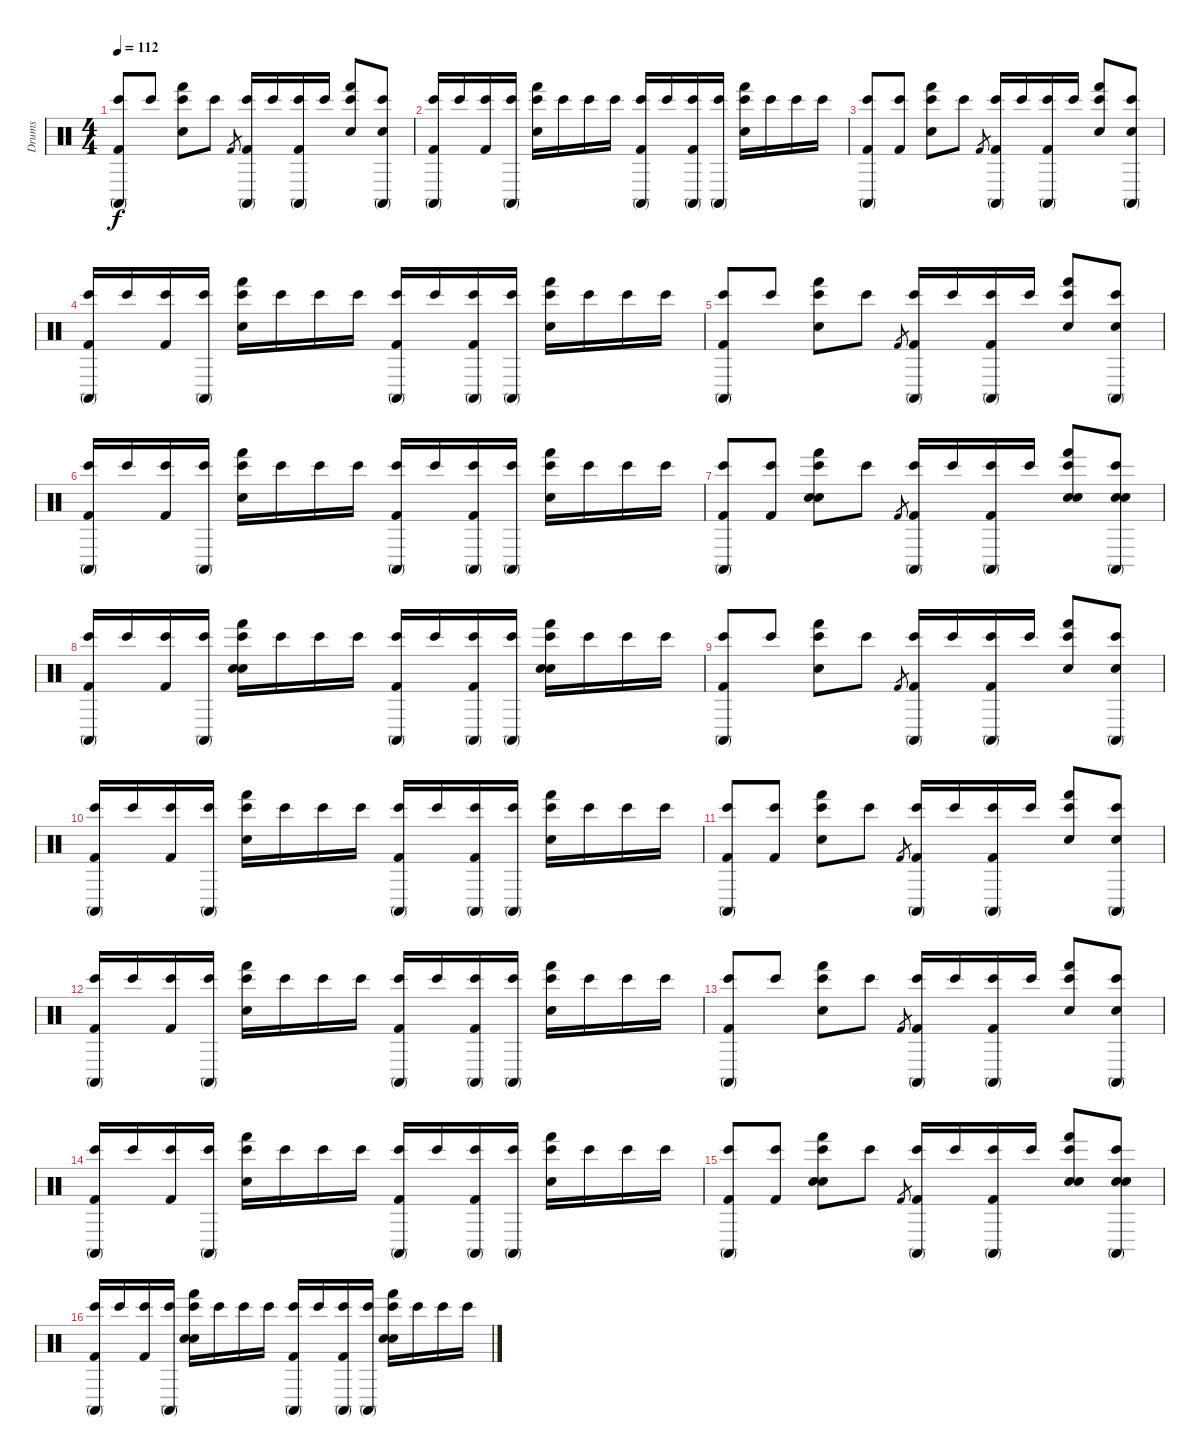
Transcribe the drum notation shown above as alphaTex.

\track ("Drums" "Drums") {instrument percussion}
\staff {score}
\articulation defaults
\ts (4 4)
\tempo 112
\clef neutral
\ks c
("Conga high (mute)" "Bongo High (hit)" "Kick (hit) 2").8{dy f} "Bongo High (hit)".8 ("Hand (hit)" "Bongo High (hit)" "Snare (hit) 2").8 "Bongo High (hit)".8 "Kick (hit) 2".8{gr} ("Conga high (mute)" "Bongo High (hit)" "Kick (hit) 2").16 "Bongo High (hit)".16 ("Conga high (mute)" "Bongo High (hit)" "Kick (hit) 2").16 "Bongo High (hit)".16 ("Hand (hit)" "Bongo High (hit)" "Snare (hit) 2").8 ("Conga high (mute)" "Bongo High (hit)" "Snare (hit) 2").8 |
("Conga high (mute)" "Bongo High (hit)" "Kick (hit) 2").16 "Bongo High (hit)".16 ("Bongo High (hit)" "Kick (hit) 2").16 ("Conga high (mute)" "Bongo High (hit)").16 ("Hand (hit)" "Bongo High (hit)" "Snare (hit) 2").16 "Bongo High (hit)".16 "Bongo High (hit)".16 "Bongo High (hit)".16 ("Conga high (mute)" "Bongo High (hit)" "Kick (hit) 2").16 "Bongo High (hit)".16 ("Conga high (mute)" "Bongo High (hit)" "Kick (hit) 2").16 ("Conga high (mute)" "Bongo High (hit)").16 ("Hand (hit)" "Bongo High (hit)" "Snare (hit) 2").16 "Bongo High (hit)".16 "Bongo High (hit)".16 "Bongo High (hit)".16 |
("Conga high (mute)" "Bongo High (hit)" "Kick (hit) 2").8 ("Bongo High (hit)" "Kick (hit) 2").8 ("Hand (hit)" "Bongo High (hit)" "Snare (hit) 2").8 "Bongo High (hit)".8 "Kick (hit) 2".8{gr} ("Conga high (mute)" "Bongo High (hit)" "Kick (hit) 2").16 "Bongo High (hit)".16 ("Conga high (mute)" "Bongo High (hit)" "Kick (hit) 2").16 "Bongo High (hit)".16 ("Hand (hit)" "Bongo High (hit)" "Snare (hit) 2").8 ("Conga high (mute)" "Bongo High (hit)" "Snare (hit) 2").8 |
("Conga high (mute)" "Bongo High (hit)" "Kick (hit) 2").16 "Bongo High (hit)".16 ("Bongo High (hit)" "Kick (hit) 2").16 ("Conga high (mute)" "Bongo High (hit)").16 ("Hand (hit)" "Bongo High (hit)" "Snare (hit) 2").16 "Bongo High (hit)".16 "Bongo High (hit)".16 "Bongo High (hit)".16 ("Conga high (mute)" "Bongo High (hit)" "Kick (hit) 2").16 "Bongo High (hit)".16 ("Conga high (mute)" "Bongo High (hit)" "Kick (hit) 2").16 ("Conga high (mute)" "Bongo High (hit)").16 ("Hand (hit)" "Bongo High (hit)" "Snare (hit) 2").16 "Bongo High (hit)".16 "Bongo High (hit)".16 "Bongo High (hit)".16 |
("Conga high (mute)" "Bongo High (hit)" "Kick (hit) 2").8 "Bongo High (hit)".8 ("Hand (hit)" "Bongo High (hit)" "Snare (hit) 2").8 "Bongo High (hit)".8 "Kick (hit) 2".8{gr} ("Conga high (mute)" "Bongo High (hit)" "Kick (hit) 2").16 "Bongo High (hit)".16 ("Conga high (mute)" "Bongo High (hit)" "Kick (hit) 2").16 "Bongo High (hit)".16 ("Hand (hit)" "Bongo High (hit)" "Snare (hit) 2").8 ("Conga high (mute)" "Bongo High (hit)" "Snare (hit) 2").8 |
("Conga high (mute)" "Bongo High (hit)" "Kick (hit) 2").16 "Bongo High (hit)".16 ("Bongo High (hit)" "Kick (hit) 2").16 ("Conga high (mute)" "Bongo High (hit)").16 ("Hand (hit)" "Bongo High (hit)" "Snare (hit) 2").16 "Bongo High (hit)".16 "Bongo High (hit)".16 "Bongo High (hit)".16 ("Conga high (mute)" "Bongo High (hit)" "Kick (hit) 2").16 "Bongo High (hit)".16 ("Conga high (mute)" "Bongo High (hit)" "Kick (hit) 2").16 ("Conga high (mute)" "Bongo High (hit)").16 ("Hand (hit)" "Bongo High (hit)" "Snare (hit) 2").16 "Bongo High (hit)".16 "Bongo High (hit)".16 "Bongo High (hit)".16 |
("Conga high (mute)" "Bongo High (hit)" "Kick (hit) 2").8 ("Bongo High (hit)" "Kick (hit) 2").8 ("Hand (hit)" "Bongo High (hit)" "Electric Snare (hit)" "Snare (hit) 2").8 "Bongo High (hit)".8 "Kick (hit) 2".8{gr} ("Conga high (mute)" "Bongo High (hit)" "Kick (hit) 2").16 "Bongo High (hit)".16 ("Conga high (mute)" "Bongo High (hit)" "Kick (hit) 2").16 "Bongo High (hit)".16 ("Hand (hit)" "Bongo High (hit)" "Electric Snare (hit)" "Snare (hit) 2").8 ("Conga high (mute)" "Bongo High (hit)" "Electric Snare (hit)" "Snare (hit) 2").8 |
("Conga high (mute)" "Bongo High (hit)" "Kick (hit) 2").16 "Bongo High (hit)".16 ("Bongo High (hit)" "Kick (hit) 2").16 ("Conga high (mute)" "Bongo High (hit)").16 ("Hand (hit)" "Bongo High (hit)" "Electric Snare (hit)" "Snare (hit) 2").16 "Bongo High (hit)".16 "Bongo High (hit)".16 "Bongo High (hit)".16 ("Conga high (mute)" "Bongo High (hit)" "Kick (hit) 2").16 "Bongo High (hit)".16 ("Conga high (mute)" "Bongo High (hit)" "Kick (hit) 2").16 ("Conga high (mute)" "Bongo High (hit)").16 ("Hand (hit)" "Bongo High (hit)" "Electric Snare (hit)" "Snare (hit) 2").16 "Bongo High (hit)".16 "Bongo High (hit)".16 "Bongo High (hit)".16 |
("Conga high (mute)" "Bongo High (hit)" "Kick (hit) 2").8 "Bongo High (hit)".8 ("Hand (hit)" "Bongo High (hit)" "Snare (hit) 2").8 "Bongo High (hit)".8 "Kick (hit) 2".8{gr} ("Conga high (mute)" "Bongo High (hit)" "Kick (hit) 2").16 "Bongo High (hit)".16 ("Conga high (mute)" "Bongo High (hit)" "Kick (hit) 2").16 "Bongo High (hit)".16 ("Hand (hit)" "Bongo High (hit)" "Snare (hit) 2").8 ("Conga high (mute)" "Bongo High (hit)" "Snare (hit) 2").8 |
("Conga high (mute)" "Bongo High (hit)" "Kick (hit) 2").16 "Bongo High (hit)".16 ("Bongo High (hit)" "Kick (hit) 2").16 ("Conga high (mute)" "Bongo High (hit)").16 ("Hand (hit)" "Bongo High (hit)" "Snare (hit) 2").16 "Bongo High (hit)".16 "Bongo High (hit)".16 "Bongo High (hit)".16 ("Conga high (mute)" "Bongo High (hit)" "Kick (hit) 2").16 "Bongo High (hit)".16 ("Conga high (mute)" "Bongo High (hit)" "Kick (hit) 2").16 ("Conga high (mute)" "Bongo High (hit)").16 ("Hand (hit)" "Bongo High (hit)" "Snare (hit) 2").16 "Bongo High (hit)".16 "Bongo High (hit)".16 "Bongo High (hit)".16 |
("Conga high (mute)" "Bongo High (hit)" "Kick (hit) 2").8 ("Bongo High (hit)" "Kick (hit) 2").8 ("Hand (hit)" "Bongo High (hit)" "Snare (hit) 2").8 "Bongo High (hit)".8 "Kick (hit) 2".8{gr} ("Conga high (mute)" "Bongo High (hit)" "Kick (hit) 2").16 "Bongo High (hit)".16 ("Conga high (mute)" "Bongo High (hit)" "Kick (hit) 2").16 "Bongo High (hit)".16 ("Hand (hit)" "Bongo High (hit)" "Snare (hit) 2").8 ("Conga high (mute)" "Bongo High (hit)" "Snare (hit) 2").8 |
("Conga high (mute)" "Bongo High (hit)" "Kick (hit) 2").16 "Bongo High (hit)".16 ("Bongo High (hit)" "Kick (hit) 2").16 ("Conga high (mute)" "Bongo High (hit)").16 ("Hand (hit)" "Bongo High (hit)" "Snare (hit) 2").16 "Bongo High (hit)".16 "Bongo High (hit)".16 "Bongo High (hit)".16 ("Conga high (mute)" "Bongo High (hit)" "Kick (hit) 2").16 "Bongo High (hit)".16 ("Conga high (mute)" "Bongo High (hit)" "Kick (hit) 2").16 ("Conga high (mute)" "Bongo High (hit)").16 ("Hand (hit)" "Bongo High (hit)" "Snare (hit) 2").16 "Bongo High (hit)".16 "Bongo High (hit)".16 "Bongo High (hit)".16 |
("Conga high (mute)" "Bongo High (hit)" "Kick (hit) 2").8 "Bongo High (hit)".8 ("Hand (hit)" "Bongo High (hit)" "Snare (hit) 2").8 "Bongo High (hit)".8 "Kick (hit) 2".8{gr} ("Conga high (mute)" "Bongo High (hit)" "Kick (hit) 2").16 "Bongo High (hit)".16 ("Conga high (mute)" "Bongo High (hit)" "Kick (hit) 2").16 "Bongo High (hit)".16 ("Hand (hit)" "Bongo High (hit)" "Snare (hit) 2").8 ("Conga high (mute)" "Bongo High (hit)" "Snare (hit) 2").8 |
("Conga high (mute)" "Bongo High (hit)" "Kick (hit) 2").16 "Bongo High (hit)".16 ("Bongo High (hit)" "Kick (hit) 2").16 ("Conga high (mute)" "Bongo High (hit)").16 ("Hand (hit)" "Bongo High (hit)" "Snare (hit) 2").16 "Bongo High (hit)".16 "Bongo High (hit)".16 "Bongo High (hit)".16 ("Conga high (mute)" "Bongo High (hit)" "Kick (hit) 2").16 "Bongo High (hit)".16 ("Conga high (mute)" "Bongo High (hit)" "Kick (hit) 2").16 ("Conga high (mute)" "Bongo High (hit)").16 ("Hand (hit)" "Bongo High (hit)" "Snare (hit) 2").16 "Bongo High (hit)".16 "Bongo High (hit)".16 "Bongo High (hit)".16 |
("Conga high (mute)" "Bongo High (hit)" "Kick (hit) 2").8 ("Bongo High (hit)" "Kick (hit) 2").8 ("Hand (hit)" "Bongo High (hit)" "Electric Snare (hit)" "Snare (hit) 2").8 "Bongo High (hit)".8 "Kick (hit) 2".8{gr} ("Conga high (mute)" "Bongo High (hit)" "Kick (hit) 2").16 "Bongo High (hit)".16 ("Conga high (mute)" "Bongo High (hit)" "Kick (hit) 2").16 "Bongo High (hit)".16 ("Hand (hit)" "Bongo High (hit)" "Electric Snare (hit)" "Snare (hit) 2").8 ("Conga high (mute)" "Bongo High (hit)" "Electric Snare (hit)" "Snare (hit) 2").8 |
("Conga high (mute)" "Bongo High (hit)" "Kick (hit) 2").16 "Bongo High (hit)".16 ("Bongo High (hit)" "Kick (hit) 2").16 ("Conga high (mute)" "Bongo High (hit)").16 ("Hand (hit)" "Bongo High (hit)" "Electric Snare (hit)" "Snare (hit) 2").16 "Bongo High (hit)".16 "Bongo High (hit)".16 "Bongo High (hit)".16 ("Conga high (mute)" "Bongo High (hit)" "Kick (hit) 2").16 "Bongo High (hit)".16 ("Conga high (mute)" "Bongo High (hit)" "Kick (hit) 2").16 ("Conga high (mute)" "Bongo High (hit)").16 ("Hand (hit)" "Bongo High (hit)" "Electric Snare (hit)" "Snare (hit) 2").16 "Bongo High (hit)".16 "Bongo High (hit)".16 "Bongo High (hit)".16
